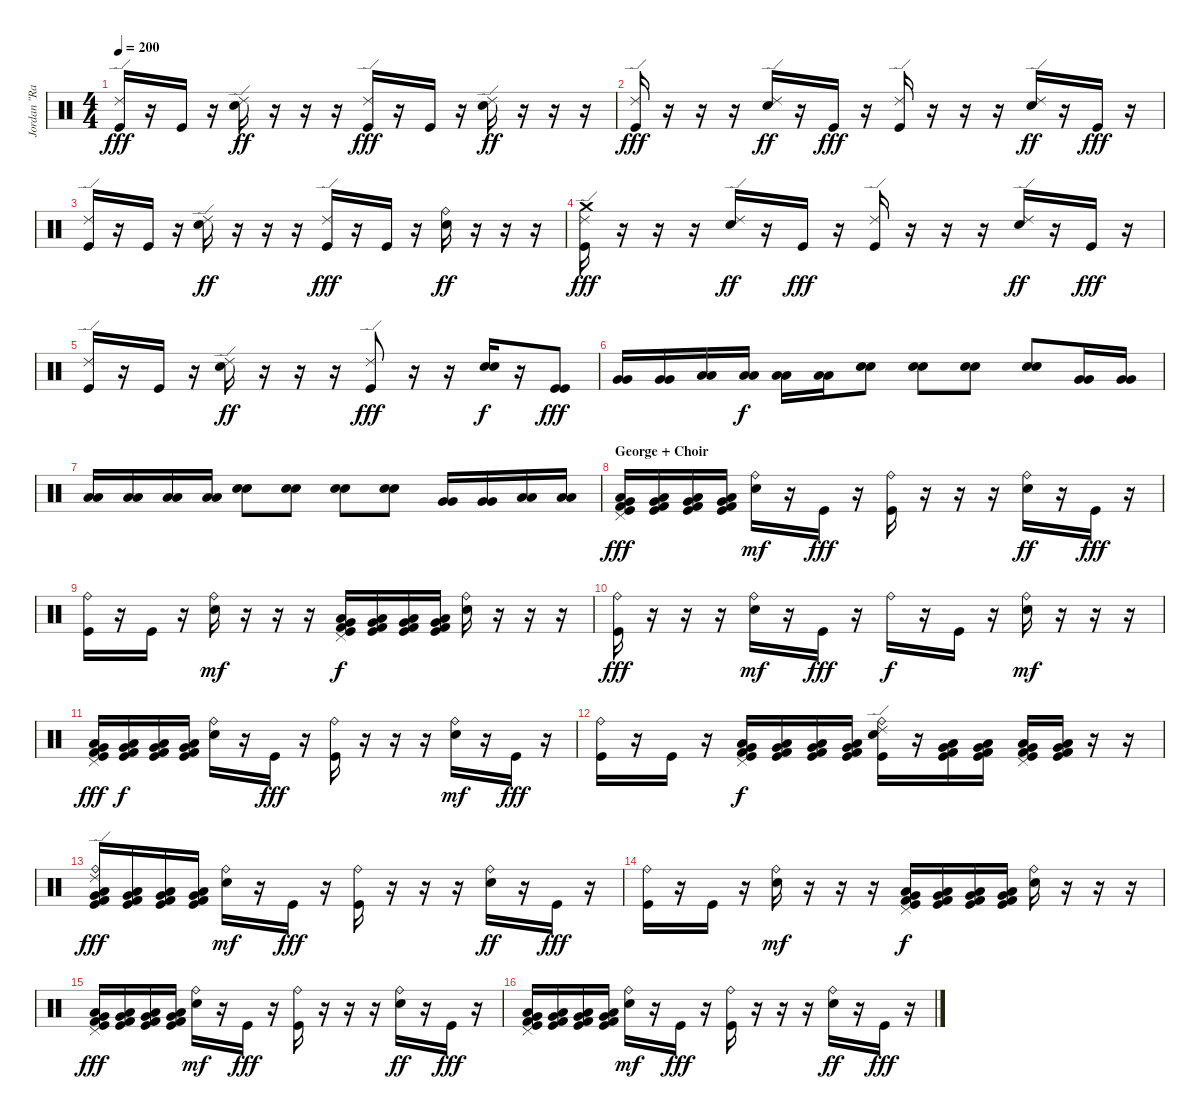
\track ("Jordan \"Ratbeard\" Hastings" "Jordan \"Ra") {instrument percussion}
\staff {score}
\articulation defaults
\ts (4 4)
\tempo 200
\clef neutral
\ks c
("Ride (edge) 2" "Kick (hit)").16{dy fff} r.16 "Kick (hit)".16 r.16 ("Ride (edge) 2" "Electric Snare (hit)").16{dy ff} r.16 r.16 r.16 ("Ride (edge) 2" "Kick (hit)").16{dy fff} r.16 "Kick (hit)".16 r.16 ("Ride (edge) 2" "Electric Snare (hit)").16{dy ff} r.16 r.16 r.16 |
("Ride (edge) 2" "Kick (hit)").16{dy fff} r.16 r.16 r.16 ("Ride (edge) 2" "Electric Snare (hit)").16{dy ff} r.16 "Kick (hit)".16{dy fff} r.16 ("Ride (edge) 2" "Kick (hit)").16 r.16 r.16 r.16 ("Ride (edge) 2" "Electric Snare (hit)").16{dy ff} r.16 "Kick (hit)".16{dy fff} r.16 |
("Ride (edge) 2" "Kick (hit)").16 r.16 "Kick (hit)".16 r.16 ("Ride (edge) 2" "Electric Snare (hit)").16{dy ff} r.16 r.16 r.16 ("Ride (edge) 2" "Kick (hit)").16{dy fff} r.16 "Kick (hit)".16 r.16 ("Ride (bell)" "Electric Snare (hit)").16{dy ff} r.16 r.16 r.16 |
("Ride (edge) 2" "Crash medium (hit)" "Kick (hit)").16{dy fff} r.16 r.16 r.16 ("Ride (edge) 2" "Electric Snare (hit)").16{dy ff} r.16 "Kick (hit)".16{dy fff} r.16 ("Ride (edge) 2" "Kick (hit)").16 r.16 r.16 r.16 ("Ride (edge) 2" "Electric Snare (hit)").16{dy ff} r.16 "Kick (hit)".16{dy fff} r.16 |
("Ride (edge) 2" "Kick (hit)").16 r.16 "Kick (hit)".16 r.16 ("Ride (edge) 2" "Electric Snare (hit)").16{dy ff} r.16 r.16 r.16 ("Ride (edge) 2" "Kick (hit)").8{dy fff} r.16 r.16 ("Electric Snare (hit)" "Electric Snare (hit)").16{dy f} r.16 ("Kick (hit)" "Kick (hit)").8{dy fff} |
("Very Low Tom (hit)" "Very Low Tom (hit)").16 ("Very Low Tom (hit)" "Very Low Tom (hit)").16 ("Low Tom (hit)" "Low Tom (hit)").16 ("Low Tom (hit)" "Low Tom (hit)").16{dy f} ("Low Floor Tom (hit)" "Low Floor Tom (hit)").16 ("Low Floor Tom (hit)" "Low Floor Tom (hit)").16 ("Electric Snare (hit)" "Electric Snare (hit)").8 ("Electric Snare (hit)" "Electric Snare (hit)").8 ("Electric Snare (hit)" "Electric Snare (hit)").8 ("Electric Snare (hit)" "Electric Snare (hit)").8 ("Very Low Tom (hit)" "Very Low Tom (hit)").16 ("Very Low Tom (hit)" "Very Low Tom (hit)").16 |
("Low Tom (hit)" "Low Tom (hit)").16 ("Low Tom (hit)" "Low Tom (hit)").16 ("Low Floor Tom (hit)" "Low Floor Tom (hit)").16 ("Low Floor Tom (hit)" "Low Floor Tom (hit)").16 ("Electric Snare (hit)" "Electric Snare (hit)").8 ("Electric Snare (hit)" "Electric Snare (hit)").8 ("Electric Snare (hit)" "Electric Snare (hit)").8 ("Electric Snare (hit)" "Electric Snare (hit)").8 ("Very Low Tom (hit)" "Very Low Tom (hit)").16 ("Very Low Tom (hit)" "Very Low Tom (hit)").16 ("Low Tom (hit)" "Low Tom (hit)").16 ("Low Tom (hit)" "Low Tom (hit)").16 |
\section ("" "George + Choir")
("Pedal Hi-Hat (hit)" "Kick (hit) 2" "Low Tom (hit)" "Very Low Tom (hit)" "Kick (hit)").16{dy fff} ("Kick (hit) 2" "Low Tom (hit)" "Very Low Tom (hit)" "Kick (hit)").16 ("Kick (hit) 2" "Low Tom (hit)" "Very Low Tom (hit)" "Kick (hit)").16 ("Kick (hit) 2" "Low Tom (hit)" "Very Low Tom (hit)" "Kick (hit)").16 ("Ride (bell)" "Electric Snare (hit)").16{dy mf} r.16 "Kick (hit)".16{dy fff} r.16 ("Ride (bell)" "Kick (hit)").16 r.16 r.16 r.16 ("Ride (bell)" "Electric Snare (hit)").16{dy ff} r.16 "Kick (hit)".16{dy fff} r.16 |
("Ride (bell)" "Kick (hit)").16 r.16 "Kick (hit)".16 r.16 ("Ride (bell)" "Electric Snare (hit)").16{dy mf} r.16 r.16 r.16 ("Pedal Hi-Hat (hit)" "Kick (hit) 2" "Low Tom (hit)" "Very Low Tom (hit)" "Kick (hit)").16{dy f} ("Kick (hit) 2" "Low Tom (hit)" "Very Low Tom (hit)" "Kick (hit)").16 ("Kick (hit) 2" "Low Tom (hit)" "Very Low Tom (hit)" "Kick (hit)").16 ("Kick (hit) 2" "Low Tom (hit)" "Very Low Tom (hit)" "Kick (hit)").16 ("Ride (bell)" "Electric Snare (hit)").16 r.16 r.16 r.16 |
("Ride (bell)" "Kick (hit)").16{dy fff} r.16 r.16 r.16 ("Ride (bell)" "Electric Snare (hit)").16{dy mf} r.16 "Kick (hit)".16{dy fff} r.16 "Ride (bell)".16{dy f} r.16 "Kick (hit)".16 r.16 ("Ride (bell)" "Electric Snare (hit)").16{dy mf} r.16 r.16 r.16 |
("Pedal Hi-Hat (hit)" "Kick (hit) 2" "Low Tom (hit)" "Very Low Tom (hit)" "Kick (hit)").16{dy fff} ("Kick (hit) 2" "Low Tom (hit)" "Very Low Tom (hit)" "Kick (hit)").16{dy f} ("Kick (hit) 2" "Low Tom (hit)" "Very Low Tom (hit)" "Kick (hit)").16 ("Kick (hit) 2" "Low Tom (hit)" "Very Low Tom (hit)" "Kick (hit)").16 ("Ride (bell)" "Electric Snare (hit)").16 r.16 "Kick (hit)".16{dy fff} r.16 ("Ride (bell)" "Kick (hit)").16 r.16 r.16 r.16 ("Ride (bell)" "Electric Snare (hit)").16{dy mf} r.16 "Kick (hit)".16{dy fff} r.16 |
("Ride (bell)" "Kick (hit)").16 r.16 "Kick (hit)".16 r.16 ("Pedal Hi-Hat (hit)" "Kick (hit) 2" "Low Tom (hit)" "Very Low Tom (hit)" "Kick (hit)").16{dy f} ("Kick (hit) 2" "Low Tom (hit)" "Very Low Tom (hit)" "Kick (hit)").16 ("Kick (hit) 2" "Low Tom (hit)" "Very Low Tom (hit)" "Kick (hit)").16 ("Kick (hit) 2" "Low Tom (hit)" "Very Low Tom (hit)" "Kick (hit)").16 ("Ride (edge) 2" "Ride (bell)" "Electric Snare (hit)" "Kick (hit)").16 r.16 ("Kick (hit) 2" "Low Tom (hit)" "Very Low Tom (hit)" "Kick (hit)").16 ("Kick (hit) 2" "Low Tom (hit)" "Very Low Tom (hit)" "Kick (hit)").16 ("Pedal Hi-Hat (hit)" "Kick (hit) 2" "Low Tom (hit)" "Very Low Tom (hit)" "Kick (hit)").16 ("Kick (hit) 2" "Low Tom (hit)" "Very Low Tom (hit)" "Kick (hit)").16 r.16 r.16 |
("Ride (edge) 2" "Ride (bell)" "Kick (hit) 2" "Low Tom (hit)" "Very Low Tom (hit)" "Kick (hit)").16{dy fff} ("Kick (hit) 2" "Low Tom (hit)" "Very Low Tom (hit)" "Kick (hit)").16 ("Kick (hit) 2" "Low Tom (hit)" "Very Low Tom (hit)" "Kick (hit)").16 ("Kick (hit) 2" "Low Tom (hit)" "Very Low Tom (hit)" "Kick (hit)").16 ("Ride (bell)" "Electric Snare (hit)").16{dy mf} r.16 "Kick (hit)".16{dy fff} r.16 ("Ride (bell)" "Kick (hit)").16 r.16 r.16 r.16 ("Ride (bell)" "Electric Snare (hit)").16{dy ff} r.16 "Kick (hit)".16{dy fff} r.16 |
("Ride (bell)" "Kick (hit)").16 r.16 "Kick (hit)".16 r.16 ("Ride (bell)" "Electric Snare (hit)").16{dy mf} r.16 r.16 r.16 ("Pedal Hi-Hat (hit)" "Kick (hit) 2" "Low Tom (hit)" "Very Low Tom (hit)" "Kick (hit)").16{dy f} ("Kick (hit) 2" "Low Tom (hit)" "Very Low Tom (hit)" "Kick (hit)").16 ("Kick (hit) 2" "Low Tom (hit)" "Very Low Tom (hit)" "Kick (hit)").16 ("Kick (hit) 2" "Low Tom (hit)" "Very Low Tom (hit)" "Kick (hit)").16 ("Ride (bell)" "Electric Snare (hit)").16 r.16 r.16 r.16 |
("Pedal Hi-Hat (hit)" "Kick (hit) 2" "Low Tom (hit)" "Very Low Tom (hit)" "Kick (hit)").16{dy fff} ("Kick (hit) 2" "Low Tom (hit)" "Very Low Tom (hit)" "Kick (hit)").16 ("Kick (hit) 2" "Low Tom (hit)" "Very Low Tom (hit)" "Kick (hit)").16 ("Kick (hit) 2" "Low Tom (hit)" "Very Low Tom (hit)" "Kick (hit)").16 ("Ride (bell)" "Electric Snare (hit)").16{dy mf} r.16 "Kick (hit)".16{dy fff} r.16 ("Ride (bell)" "Kick (hit)").16 r.16 r.16 r.16 ("Ride (bell)" "Electric Snare (hit)").16{dy ff} r.16 "Kick (hit)".16{dy fff} r.16 |
("Pedal Hi-Hat (hit)" "Low Tom (hit)" "Kick (hit) 2" "Very Low Tom (hit)" "Kick (hit)").16 ("Low Tom (hit)" "Kick (hit) 2" "Very Low Tom (hit)" "Kick (hit)").16 ("Low Tom (hit)" "Kick (hit) 2" "Very Low Tom (hit)" "Kick (hit)").16 ("Low Tom (hit)" "Kick (hit) 2" "Very Low Tom (hit)" "Kick (hit)").16 ("Ride (bell)" "Electric Snare (hit)").16{dy mf} r.16 "Kick (hit)".16{dy fff} r.16 ("Ride (bell)" "Kick (hit)").16 r.16 r.16 r.16 ("Ride (bell)" "Electric Snare (hit)").16{dy ff} r.16 "Kick (hit)".16{dy fff} r.16
